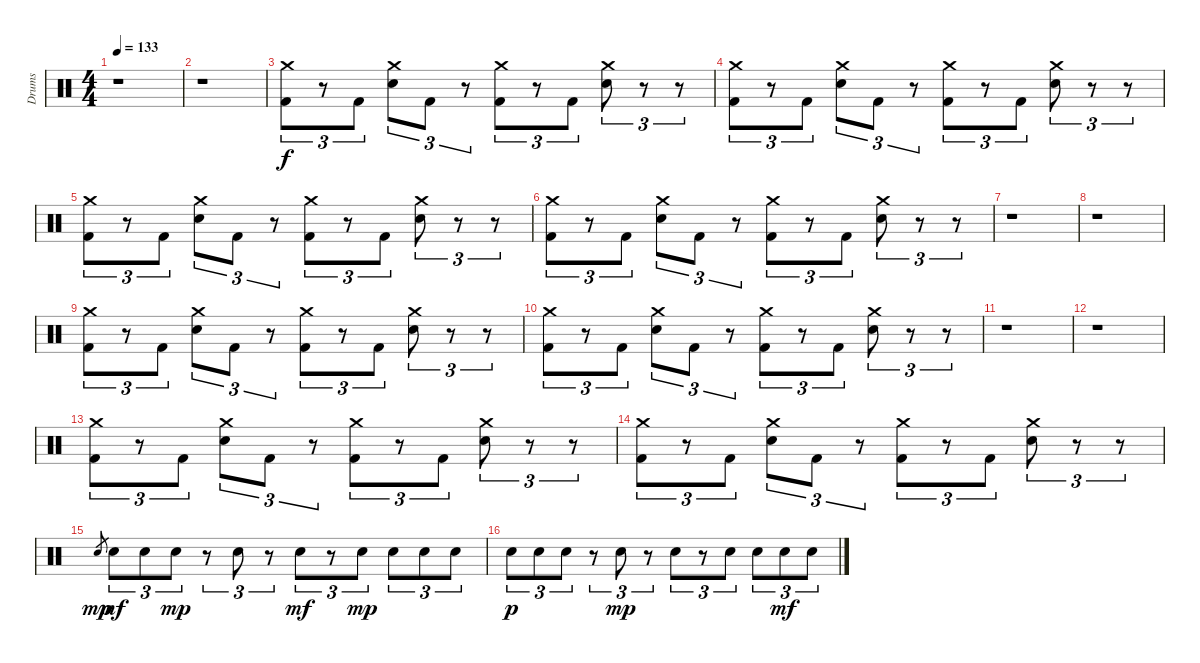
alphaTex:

\track ("Drums" "Drums") {instrument percussion}
\staff {score}
\articulation defaults
\ts (4 4)
\tempo 133
\clef neutral
\ks c
r.1{dy f} |
r.1 |
("Crash medium (hit)" "Kick (hit) 2").8{tu (3 2)} r.8{tu (3 2)} "Kick (hit) 2".8{tu (3 2)} ("Crash medium (hit)" "Electric Snare (hit)").8{tu (3 2)} "Kick (hit) 2".8{tu (3 2)} r.8{tu (3 2)} ("Crash medium (hit)" "Kick (hit) 2").8{tu (3 2)} r.8{tu (3 2)} "Kick (hit) 2".8{tu (3 2)} ("Crash medium (hit)" "Electric Snare (hit)").8{tu (3 2)} r.8{tu (3 2)} r.8{tu (3 2)} |
("Crash medium (hit)" "Kick (hit) 2").8{tu (3 2)} r.8{tu (3 2)} "Kick (hit) 2".8{tu (3 2)} ("Crash medium (hit)" "Electric Snare (hit)").8{tu (3 2)} "Kick (hit) 2".8{tu (3 2)} r.8{tu (3 2)} ("Crash medium (hit)" "Kick (hit) 2").8{tu (3 2)} r.8{tu (3 2)} "Kick (hit) 2".8{tu (3 2)} ("Crash medium (hit)" "Electric Snare (hit)").8{tu (3 2)} r.8{tu (3 2)} r.8{tu (3 2)} |
("Crash medium (hit)" "Kick (hit) 2").8{tu (3 2)} r.8{tu (3 2)} "Kick (hit) 2".8{tu (3 2)} ("Crash medium (hit)" "Electric Snare (hit)").8{tu (3 2)} "Kick (hit) 2".8{tu (3 2)} r.8{tu (3 2)} ("Crash medium (hit)" "Kick (hit) 2").8{tu (3 2)} r.8{tu (3 2)} "Kick (hit) 2".8{tu (3 2)} ("Crash medium (hit)" "Electric Snare (hit)").8{tu (3 2)} r.8{tu (3 2)} r.8{tu (3 2)} |
("Crash medium (hit)" "Kick (hit) 2").8{tu (3 2)} r.8{tu (3 2)} "Kick (hit) 2".8{tu (3 2)} ("Crash medium (hit)" "Electric Snare (hit)").8{tu (3 2)} "Kick (hit) 2".8{tu (3 2)} r.8{tu (3 2)} ("Crash medium (hit)" "Kick (hit) 2").8{tu (3 2)} r.8{tu (3 2)} "Kick (hit) 2".8{tu (3 2)} ("Crash medium (hit)" "Electric Snare (hit)").8{tu (3 2)} r.8{tu (3 2)} r.8{tu (3 2)} |
r.1 |
r.1 |
("Crash medium (hit)" "Kick (hit) 2").8{tu (3 2)} r.8{tu (3 2)} "Kick (hit) 2".8{tu (3 2)} ("Crash medium (hit)" "Electric Snare (hit)").8{tu (3 2)} "Kick (hit) 2".8{tu (3 2)} r.8{tu (3 2)} ("Crash medium (hit)" "Kick (hit) 2").8{tu (3 2)} r.8{tu (3 2)} "Kick (hit) 2".8{tu (3 2)} ("Crash medium (hit)" "Electric Snare (hit)").8{tu (3 2)} r.8{tu (3 2)} r.8{tu (3 2)} |
("Crash medium (hit)" "Kick (hit) 2").8{tu (3 2)} r.8{tu (3 2)} "Kick (hit) 2".8{tu (3 2)} ("Crash medium (hit)" "Electric Snare (hit)").8{tu (3 2)} "Kick (hit) 2".8{tu (3 2)} r.8{tu (3 2)} ("Crash medium (hit)" "Kick (hit) 2").8{tu (3 2)} r.8{tu (3 2)} "Kick (hit) 2".8{tu (3 2)} ("Crash medium (hit)" "Electric Snare (hit)").8{tu (3 2)} r.8{tu (3 2)} r.8{tu (3 2)} |
r.1 |
r.1 |
("Crash medium (hit)" "Kick (hit) 2").8{tu (3 2)} r.8{tu (3 2)} "Kick (hit) 2".8{tu (3 2)} ("Crash medium (hit)" "Electric Snare (hit)").8{tu (3 2)} "Kick (hit) 2".8{tu (3 2)} r.8{tu (3 2)} ("Crash medium (hit)" "Kick (hit) 2").8{tu (3 2)} r.8{tu (3 2)} "Kick (hit) 2".8{tu (3 2)} ("Crash medium (hit)" "Electric Snare (hit)").8{tu (3 2)} r.8{tu (3 2)} r.8{tu (3 2)} |
("Crash medium (hit)" "Kick (hit) 2").8{tu (3 2)} r.8{tu (3 2)} "Kick (hit) 2".8{tu (3 2)} ("Crash medium (hit)" "Electric Snare (hit)").8{tu (3 2)} "Kick (hit) 2".8{tu (3 2)} r.8{tu (3 2)} ("Crash medium (hit)" "Kick (hit) 2").8{tu (3 2)} r.8{tu (3 2)} "Kick (hit) 2".8{tu (3 2)} ("Crash medium (hit)" "Electric Snare (hit)").8{tu (3 2)} r.8{tu (3 2)} r.8{tu (3 2)} |
"Electric Snare (hit)".8{gr dy mp} "Electric Snare (hit)".8{tu (3 2) dy mf} "Electric Snare (hit)".8{tu (3 2)} "Electric Snare (hit)".8{tu (3 2) dy mp} r.8{tu (3 2)} "Electric Snare (hit)".8{tu (3 2)} r.8{tu (3 2)} "Electric Snare (hit)".8{tu (3 2) dy mf} r.8{tu (3 2)} "Electric Snare (hit)".8{tu (3 2) dy mp} "Electric Snare (hit)".8{tu (3 2)} "Electric Snare (hit)".8{tu (3 2)} "Electric Snare (hit)".8{tu (3 2)} |
"Electric Snare (hit)".8{tu (3 2) dy p} "Electric Snare (hit)".8{tu (3 2)} "Electric Snare (hit)".8{tu (3 2)} r.8{tu (3 2)} "Electric Snare (hit)".8{tu (3 2) dy mp} r.8{tu (3 2)} "Electric Snare (hit)".8{tu (3 2)} r.8{tu (3 2)} "Electric Snare (hit)".8{tu (3 2)} "Electric Snare (hit)".8{tu (3 2)} "Electric Snare (hit)".8{tu (3 2) dy mf} "Electric Snare (hit)".8{tu (3 2)}
